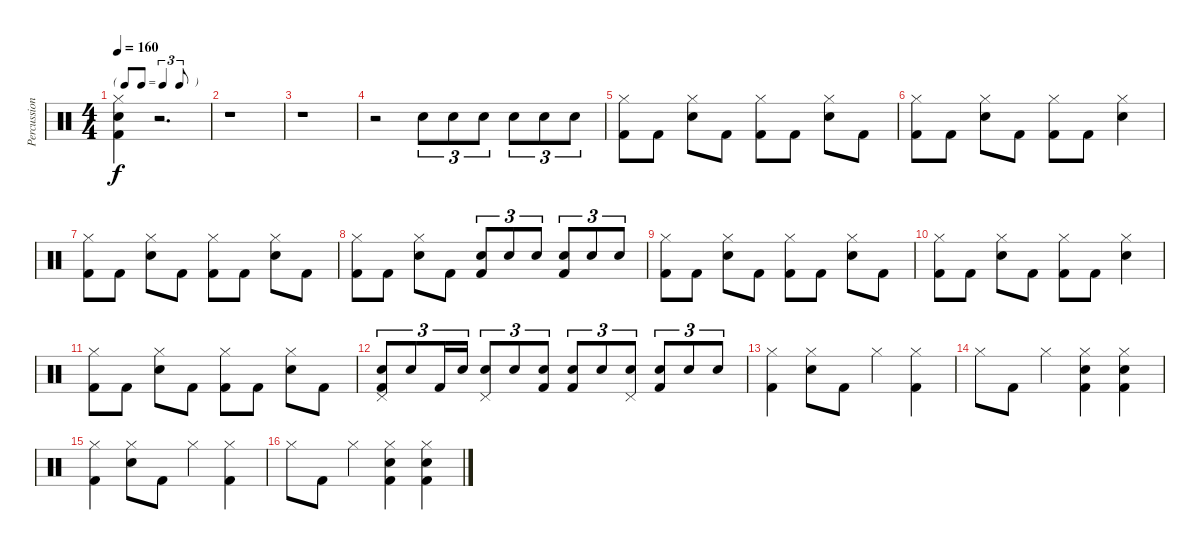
\track ("Percussion" "Percussion") {instrument percussion}
\staff {score}
\articulation defaults
\ts (4 4)
\tf triplet8th
\tempo 160
\clef neutral
\ks c
("Kick (hit) 2" "Snare (hit) 2" "Hi-Hat (closed)").4{dy f} r.2{d} |
r.1 |
r.1 |
r.2 "Snare (hit) 2".8{tu (3 2)} "Snare (hit) 2".8{tu (3 2)} "Snare (hit) 2".8{tu (3 2)} "Snare (hit) 2".8{tu (3 2)} "Snare (hit) 2".8{tu (3 2)} "Snare (hit) 2".8{tu (3 2)} |
("Kick (hit) 2" "Hi-Hat (closed)").8 "Kick (hit) 2".8 ("Snare (hit) 2" "Hi-Hat (closed)").8 "Kick (hit) 2".8 ("Kick (hit) 2" "Hi-Hat (closed)").8 "Kick (hit) 2".8 ("Snare (hit) 2" "Hi-Hat (closed)").8 "Kick (hit) 2".8 |
("Kick (hit) 2" "Hi-Hat (closed)").8 "Kick (hit) 2".8 ("Snare (hit) 2" "Hi-Hat (closed)").8 "Kick (hit) 2".8 ("Kick (hit) 2" "Hi-Hat (closed)").8 "Kick (hit) 2".8 ("Snare (hit) 2" "Hi-Hat (closed)").4 |
("Kick (hit) 2" "Hi-Hat (closed)").8 "Kick (hit) 2".8 ("Snare (hit) 2" "Hi-Hat (closed)").8 "Kick (hit) 2".8 ("Kick (hit) 2" "Hi-Hat (closed)").8 "Kick (hit) 2".8 ("Snare (hit) 2" "Hi-Hat (closed)").8 "Kick (hit) 2".8 |
("Kick (hit) 2" "Hi-Hat (closed)").8 "Kick (hit) 2".8 ("Snare (hit) 2" "Hi-Hat (closed)").8 "Kick (hit) 2".8 ("Snare (hit) 2" "Kick (hit) 2").8{tu (3 2)} "Snare (hit) 2".8{tu (3 2)} "Snare (hit) 2".8{tu (3 2)} ("Snare (hit) 2" "Kick (hit) 2").8{tu (3 2)} "Snare (hit) 2".8{tu (3 2)} "Snare (hit) 2".8{tu (3 2)} |
("Kick (hit) 2" "Hi-Hat (closed)").8 "Kick (hit) 2".8 ("Snare (hit) 2" "Hi-Hat (closed)").8 "Kick (hit) 2".8 ("Kick (hit) 2" "Hi-Hat (closed)").8 "Kick (hit) 2".8 ("Snare (hit) 2" "Hi-Hat (closed)").8 "Kick (hit) 2".8 |
("Kick (hit) 2" "Hi-Hat (closed)").8 "Kick (hit) 2".8 ("Snare (hit) 2" "Hi-Hat (closed)").8 "Kick (hit) 2".8 ("Kick (hit) 2" "Hi-Hat (closed)").8 "Kick (hit) 2".8 ("Snare (hit) 2" "Hi-Hat (closed)").4 |
("Kick (hit) 2" "Hi-Hat (closed)").8 "Kick (hit) 2".8 ("Snare (hit) 2" "Hi-Hat (closed)").8 "Kick (hit) 2".8 ("Kick (hit) 2" "Hi-Hat (closed)").8 "Kick (hit) 2".8 ("Snare (hit) 2" "Hi-Hat (closed)").8 "Kick (hit) 2".8 |
("Snare (hit) 2" "Kick (hit) 2" "Pedal Hi-Hat (hit)").8{tu (3 2)} "Snare (hit) 2".8{tu (3 2)} "Kick (hit) 2".16{tu (3 2)} "Snare (hit) 2".16{tu (3 2)} ("Snare (hit) 2" "Pedal Hi-Hat (hit)").8{tu (3 2)} "Snare (hit) 2".8{tu (3 2)} ("Snare (hit) 2" "Kick (hit) 2").8{tu (3 2)} ("Snare (hit) 2" "Kick (hit) 2").8{tu (3 2)} "Snare (hit) 2".8{tu (3 2)} ("Snare (hit) 2" "Pedal Hi-Hat (hit)").8{tu (3 2)} ("Snare (hit) 2" "Kick (hit) 2").8{tu (3 2)} "Snare (hit) 2".8{tu (3 2)} "Snare (hit) 2".8{tu (3 2)} |
("Kick (hit) 2" "Hi-Hat (closed)").4 ("Snare (hit) 2" "Hi-Hat (closed)").8 "Kick (hit) 2".8 "Hi-Hat (closed)".4 ("Kick (hit) 2" "Hi-Hat (closed)").4 |
"Hi-Hat (closed)".8 "Kick (hit) 2".8 "Hi-Hat (closed)".4 ("Kick (hit) 2" "Snare (hit) 2" "Hi-Hat (closed)").4 ("Kick (hit) 2" "Snare (hit) 2" "Hi-Hat (closed)").4 |
("Kick (hit) 2" "Hi-Hat (closed)").4 ("Snare (hit) 2" "Hi-Hat (closed)").8 "Kick (hit) 2".8 "Hi-Hat (closed)".4 ("Kick (hit) 2" "Hi-Hat (closed)").4 |
"Hi-Hat (closed)".8 "Kick (hit) 2".8 "Hi-Hat (closed)".4 ("Kick (hit) 2" "Snare (hit) 2" "Hi-Hat (closed)").4 ("Kick (hit) 2" "Snare (hit) 2" "Hi-Hat (closed)").4
